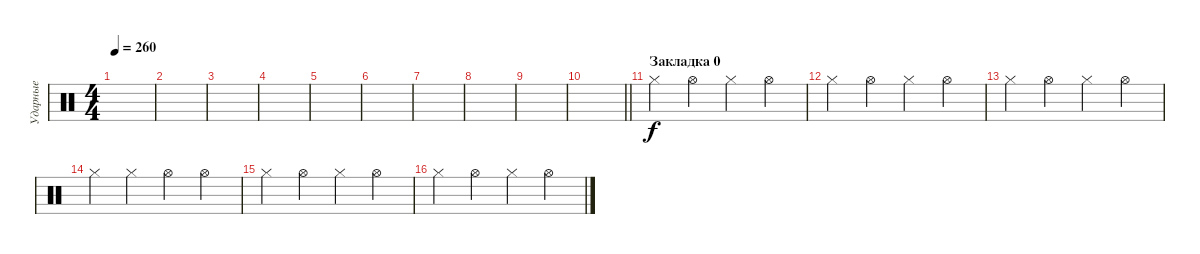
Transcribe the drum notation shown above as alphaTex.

\track ("Ударные" "Ударные") {instrument percussion}
\staff {score}
\articulation defaults
\ts (4 4)
\tempo 260
\clef neutral
\ks c
|
|
|
|
|
|
|
|
|
\barLineRight lightlight
|
\section ("" "Закладка 0")
"Hi-Hat (closed)".4 "Hi-Hat (open)".4 "Hi-Hat (closed)".4 "Hi-Hat (open)".4 |
"Hi-Hat (closed)".4 "Hi-Hat (open)".4 "Hi-Hat (closed)".4 "Hi-Hat (open)".4 |
"Hi-Hat (closed)".4 "Hi-Hat (open)".4 "Hi-Hat (closed)".4 "Hi-Hat (open)".4 |
"Hi-Hat (closed)".4 "Hi-Hat (closed)".4 "Hi-Hat (open)".4 "Hi-Hat (open)".4 |
"Hi-Hat (closed)".4 "Hi-Hat (open)".4 "Hi-Hat (closed)".4 "Hi-Hat (open)".4 |
"Hi-Hat (closed)".4 "Hi-Hat (open)".4 "Hi-Hat (closed)".4 "Hi-Hat (open)".4
